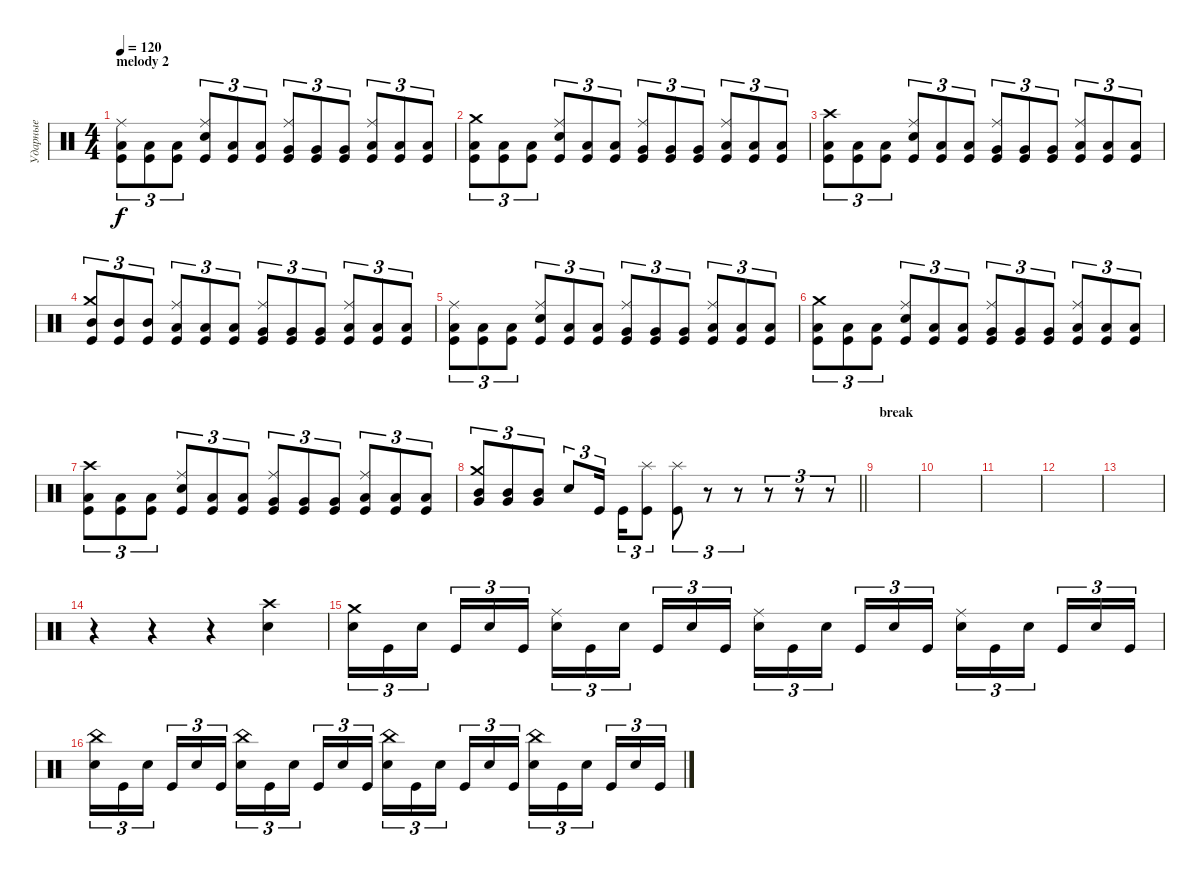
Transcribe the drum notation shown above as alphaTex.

\track ("Ударные" "Ударные") {instrument percussion}
\staff {score}
\articulation defaults
\ts (4 4)
\section ("" "melody 2")
\tempo 120
\clef neutral
\ks c
("Kick (hit)" "Low Floor Tom (hit)" "Ride (middle)").8{tu (3 2) dy f} ("Kick (hit)" "Low Floor Tom (hit)").8{tu (3 2)} ("Kick (hit)" "Low Floor Tom (hit)").8{tu (3 2)} ("Kick (hit)" "Electric Snare (hit)" "Ride (middle)").8{tu (3 2)} ("Kick (hit)" "Low Floor Tom (hit)").8{tu (3 2)} ("Kick (hit)" "Low Floor Tom (hit)").8{tu (3 2)} ("Kick (hit)" "Very Low Tom (hit)" "Ride (middle)").8{tu (3 2)} ("Kick (hit)" "Very Low Tom (hit)").8{tu (3 2)} ("Kick (hit)" "Very Low Tom (hit)").8{tu (3 2)} ("Kick (hit)" "Low Tom (hit)" "Ride (middle)").8{tu (3 2)} ("Kick (hit)" "Low Tom (hit)").8{tu (3 2)} ("Kick (hit)" "Low Tom (hit)").8{tu (3 2)} |
("Kick (hit)" "Low Floor Tom (hit)" "Crash medium (hit)").8{tu (3 2)} ("Kick (hit)" "Low Floor Tom (hit)").8{tu (3 2)} ("Kick (hit)" "Low Floor Tom (hit)").8{tu (3 2)} ("Kick (hit)" "Electric Snare (hit)" "Ride (middle)").8{tu (3 2)} ("Kick (hit)" "Low Floor Tom (hit)").8{tu (3 2)} ("Kick (hit)" "Low Floor Tom (hit)").8{tu (3 2)} ("Kick (hit)" "Very Low Tom (hit)" "Ride (middle)").8{tu (3 2)} ("Kick (hit)" "Very Low Tom (hit)").8{tu (3 2)} ("Kick (hit)" "Very Low Tom (hit)").8{tu (3 2)} ("Kick (hit)" "Low Tom (hit)" "Ride (middle)").8{tu (3 2)} ("Kick (hit)" "Low Tom (hit)").8{tu (3 2)} ("Kick (hit)" "Low Tom (hit)").8{tu (3 2)} |
("Kick (hit)" "Low Floor Tom (hit)" "Crash high (hit)").8{tu (3 2)} ("Kick (hit)" "Low Floor Tom (hit)").8{tu (3 2)} ("Kick (hit)" "Low Floor Tom (hit)").8{tu (3 2)} ("Kick (hit)" "Electric Snare (hit)" "Ride (middle)").8{tu (3 2)} ("Kick (hit)" "Low Floor Tom (hit)").8{tu (3 2)} ("Kick (hit)" "Low Floor Tom (hit)").8{tu (3 2)} ("Kick (hit)" "Very Low Tom (hit)" "Ride (middle)").8{tu (3 2)} ("Kick (hit)" "Very Low Tom (hit)").8{tu (3 2)} ("Kick (hit)" "Very Low Tom (hit)").8{tu (3 2)} ("Kick (hit)" "Low Tom (hit)" "Ride (middle)").8{tu (3 2)} ("Kick (hit)" "Low Tom (hit)").8{tu (3 2)} ("Kick (hit)" "Low Tom (hit)").8{tu (3 2)} |
("Kick (hit)" "Mid Tom (hit)" "Crash medium (hit)").8{tu (3 2)} ("Kick (hit)" "Mid Tom (hit)").8{tu (3 2)} ("Kick (hit)" "Mid Tom (hit)").8{tu (3 2)} ("Kick (hit)" "Low Tom (hit)" "Ride (middle)").8{tu (3 2)} ("Kick (hit)" "Low Tom (hit)").8{tu (3 2)} ("Kick (hit)" "Low Tom (hit)").8{tu (3 2)} ("Kick (hit)" "Very Low Tom (hit)" "Ride (middle)").8{tu (3 2)} ("Kick (hit)" "Very Low Tom (hit)").8{tu (3 2)} ("Kick (hit)" "Very Low Tom (hit)").8{tu (3 2)} ("Kick (hit)" "Low Tom (hit)" "Ride (middle)").8{tu (3 2)} ("Kick (hit)" "Low Tom (hit)").8{tu (3 2)} ("Kick (hit)" "Low Tom (hit)").8{tu (3 2)} |
("Kick (hit)" "Low Floor Tom (hit)" "Ride (middle)").8{tu (3 2)} ("Kick (hit)" "Low Floor Tom (hit)").8{tu (3 2)} ("Kick (hit)" "Low Floor Tom (hit)").8{tu (3 2)} ("Kick (hit)" "Electric Snare (hit)" "Ride (middle)").8{tu (3 2)} ("Kick (hit)" "Low Floor Tom (hit)").8{tu (3 2)} ("Kick (hit)" "Low Floor Tom (hit)").8{tu (3 2)} ("Kick (hit)" "Very Low Tom (hit)" "Ride (middle)").8{tu (3 2)} ("Kick (hit)" "Very Low Tom (hit)").8{tu (3 2)} ("Kick (hit)" "Very Low Tom (hit)").8{tu (3 2)} ("Kick (hit)" "Low Tom (hit)" "Ride (middle)").8{tu (3 2)} ("Kick (hit)" "Low Tom (hit)").8{tu (3 2)} ("Kick (hit)" "Low Tom (hit)").8{tu (3 2)} |
("Kick (hit)" "Low Floor Tom (hit)" "Crash medium (hit)").8{tu (3 2)} ("Kick (hit)" "Low Floor Tom (hit)").8{tu (3 2)} ("Kick (hit)" "Low Floor Tom (hit)").8{tu (3 2)} ("Kick (hit)" "Electric Snare (hit)" "Ride (middle)").8{tu (3 2)} ("Kick (hit)" "Low Floor Tom (hit)").8{tu (3 2)} ("Kick (hit)" "Low Floor Tom (hit)").8{tu (3 2)} ("Kick (hit)" "Very Low Tom (hit)" "Ride (middle)").8{tu (3 2)} ("Kick (hit)" "Very Low Tom (hit)").8{tu (3 2)} ("Kick (hit)" "Very Low Tom (hit)").8{tu (3 2)} ("Kick (hit)" "Low Tom (hit)" "Ride (middle)").8{tu (3 2)} ("Kick (hit)" "Low Tom (hit)").8{tu (3 2)} ("Kick (hit)" "Low Tom (hit)").8{tu (3 2)} |
("Kick (hit)" "Low Floor Tom (hit)" "Crash high (hit)").8{tu (3 2)} ("Kick (hit)" "Low Floor Tom (hit)").8{tu (3 2)} ("Kick (hit)" "Low Floor Tom (hit)").8{tu (3 2)} ("Kick (hit)" "Electric Snare (hit)" "Ride (middle)").8{tu (3 2)} ("Kick (hit)" "Low Floor Tom (hit)").8{tu (3 2)} ("Kick (hit)" "Low Floor Tom (hit)").8{tu (3 2)} ("Kick (hit)" "Very Low Tom (hit)" "Ride (middle)").8{tu (3 2)} ("Kick (hit)" "Very Low Tom (hit)").8{tu (3 2)} ("Kick (hit)" "Very Low Tom (hit)").8{tu (3 2)} ("Kick (hit)" "Low Tom (hit)" "Ride (middle)").8{tu (3 2)} ("Kick (hit)" "Low Tom (hit)").8{tu (3 2)} ("Kick (hit)" "Low Tom (hit)").8{tu (3 2)} |
\barLineRight lightlight
("Very Low Tom (hit)" "Mid Tom (hit)" "Crash medium (hit)").8{tu (3 2)} ("Very Low Tom (hit)" "Mid Tom (hit)").8{tu (3 2)} ("Very Low Tom (hit)" "Mid Tom (hit)").8{tu (3 2)} "Electric Snare (hit)".8{tu (3 2)} "Kick (hit)".16{tu (3 2) beam splitsecondary} "Kick (hit)".16{tu (3 2)} ("Splash (hit)" "Kick (hit)").8{tu (3 2)} ("Splash (hit)" "Kick (hit)").8{tu (3 2)} r.8{tu (3 2)} r.8{tu (3 2)} r.8{tu (3 2)} r.8{tu (3 2)} r.8{tu (3 2)} |
\section ("" "break")
|
|
|
|
|
r.4 r.4 r.4 ("Crash high (hit)" "Electric Snare (hit)").4 |
("Crash medium (hit)" "Electric Snare (hit)").16{tu (3 2)} "Kick (hit)".16{tu (3 2)} "Electric Snare (hit)".16{tu (3 2) beam splitsecondary} "Kick (hit)".16{tu (3 2)} "Electric Snare (hit)".16{tu (3 2)} "Kick (hit)".16{tu (3 2)} ("Ride (middle)" "Electric Snare (hit)").16{tu (3 2)} "Kick (hit)".16{tu (3 2)} "Electric Snare (hit)".16{tu (3 2) beam splitsecondary} "Kick (hit)".16{tu (3 2)} "Electric Snare (hit)".16{tu (3 2)} "Kick (hit)".16{tu (3 2)} ("Ride (middle)" "Electric Snare (hit)").16{tu (3 2)} "Kick (hit)".16{tu (3 2)} "Electric Snare (hit)".16{tu (3 2) beam splitsecondary} "Kick (hit)".16{tu (3 2)} "Electric Snare (hit)".16{tu (3 2)} "Kick (hit)".16{tu (3 2)} ("Ride (middle)" "Electric Snare (hit)").16{tu (3 2)} "Kick (hit)".16{tu (3 2)} "Electric Snare (hit)".16{tu (3 2) beam splitsecondary} "Kick (hit)".16{tu (3 2)} "Electric Snare (hit)".16{tu (3 2)} "Kick (hit)".16{tu (3 2)} |
("China (hit)" "Electric Snare (hit)").16{tu (3 2)} "Kick (hit)".16{tu (3 2)} "Electric Snare (hit)".16{tu (3 2) beam splitsecondary} "Kick (hit)".16{tu (3 2)} "Electric Snare (hit)".16{tu (3 2)} "Kick (hit)".16{tu (3 2)} ("China (hit)" "Electric Snare (hit)").16{tu (3 2)} "Kick (hit)".16{tu (3 2)} "Electric Snare (hit)".16{tu (3 2) beam splitsecondary} "Kick (hit)".16{tu (3 2)} "Electric Snare (hit)".16{tu (3 2)} "Kick (hit)".16{tu (3 2)} ("China (hit)" "Electric Snare (hit)").16{tu (3 2)} "Kick (hit)".16{tu (3 2)} "Electric Snare (hit)".16{tu (3 2) beam splitsecondary} "Kick (hit)".16{tu (3 2)} "Electric Snare (hit)".16{tu (3 2)} "Kick (hit)".16{tu (3 2)} ("China (hit)" "Electric Snare (hit)").16{tu (3 2)} "Kick (hit)".16{tu (3 2)} "Electric Snare (hit)".16{tu (3 2) beam splitsecondary} "Kick (hit)".16{tu (3 2)} "Electric Snare (hit)".16{tu (3 2)} "Kick (hit)".16{tu (3 2)}
